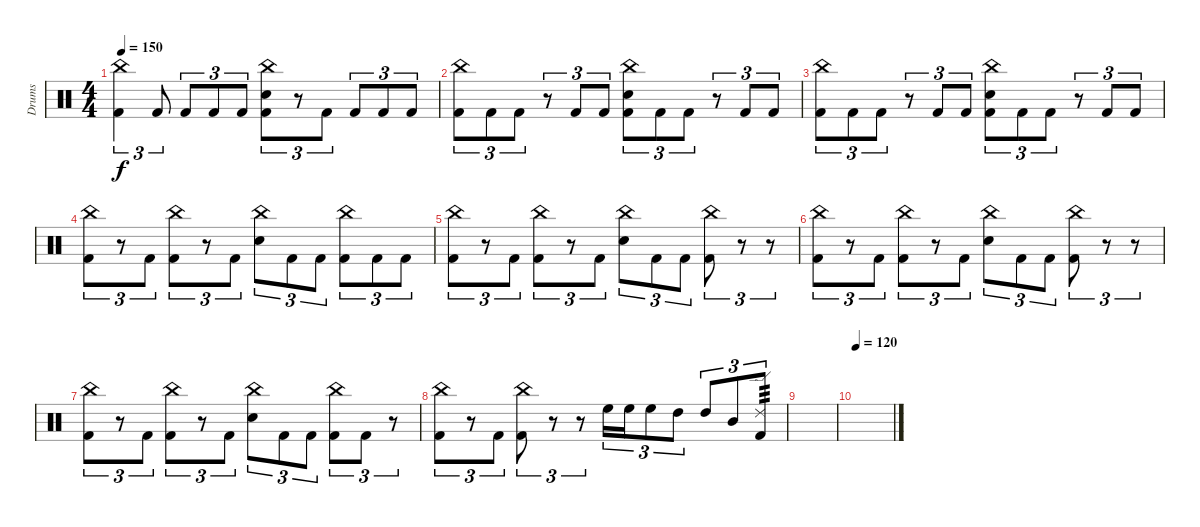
\track ("Drums" "Drums") {instrument percussion}
\staff {score}
\articulation defaults
\ts (4 4)
\tempo 150
\clef neutral
\ks c
("China (hit)" "Kick (hit) 2").4{tu (3 2) dy f} "Kick (hit) 2".8{tu (3 2)} "Kick (hit) 2".8{tu (3 2)} "Kick (hit) 2".8{tu (3 2)} "Kick (hit) 2".8{tu (3 2)} ("China (hit)" "Snare (hit) 2" "Kick (hit) 2").8{tu (3 2)} r.8{tu (3 2)} "Kick (hit) 2".8{tu (3 2)} "Kick (hit) 2".8{tu (3 2)} "Kick (hit) 2".8{tu (3 2)} "Kick (hit) 2".8{tu (3 2)} |
("China (hit)" "Kick (hit) 2").8{tu (3 2)} "Kick (hit) 2".8{tu (3 2)} "Kick (hit) 2".8{tu (3 2)} r.8{tu (3 2)} "Kick (hit) 2".8{tu (3 2)} "Kick (hit) 2".8{tu (3 2)} ("China (hit)" "Snare (hit) 2" "Kick (hit) 2").8{tu (3 2)} "Kick (hit) 2".8{tu (3 2)} "Kick (hit) 2".8{tu (3 2)} r.8{tu (3 2)} "Kick (hit) 2".8{tu (3 2)} "Kick (hit) 2".8{tu (3 2)} |
("China (hit)" "Kick (hit) 2").8{tu (3 2)} "Kick (hit) 2".8{tu (3 2)} "Kick (hit) 2".8{tu (3 2)} r.8{tu (3 2)} "Kick (hit) 2".8{tu (3 2)} "Kick (hit) 2".8{tu (3 2)} ("China (hit)" "Snare (hit) 2" "Kick (hit) 2").8{tu (3 2)} "Kick (hit) 2".8{tu (3 2)} "Kick (hit) 2".8{tu (3 2)} r.8{tu (3 2)} "Kick (hit) 2".8{tu (3 2)} "Kick (hit) 2".8{tu (3 2)} |
("China (hit)" "Kick (hit) 2").8{tu (3 2)} r.8{tu (3 2)} "Kick (hit) 2".8{tu (3 2)} ("China (hit)" "Kick (hit) 2").8{tu (3 2)} r.8{tu (3 2)} "Kick (hit) 2".8{tu (3 2)} ("China (hit)" "Snare (hit) 2").8{tu (3 2)} "Kick (hit) 2".8{tu (3 2)} "Kick (hit) 2".8{tu (3 2)} ("China (hit)" "Kick (hit) 2").8{tu (3 2)} "Kick (hit) 2".8{tu (3 2)} "Kick (hit) 2".8{tu (3 2)} |
("China (hit)" "Kick (hit) 2").8{tu (3 2)} r.8{tu (3 2)} "Kick (hit) 2".8{tu (3 2)} ("China (hit)" "Kick (hit) 2").8{tu (3 2)} r.8{tu (3 2)} "Kick (hit) 2".8{tu (3 2)} ("China (hit)" "Snare (hit) 2").8{tu (3 2)} "Kick (hit) 2".8{tu (3 2)} "Kick (hit) 2".8{tu (3 2)} ("China (hit)" "Kick (hit) 2").8{tu (3 2)} r.8{tu (3 2)} r.8{tu (3 2)} |
("China (hit)" "Kick (hit) 2").8{tu (3 2)} r.8{tu (3 2)} "Kick (hit) 2".8{tu (3 2)} ("China (hit)" "Kick (hit) 2").8{tu (3 2)} r.8{tu (3 2)} "Kick (hit) 2".8{tu (3 2)} ("China (hit)" "Snare (hit) 2").8{tu (3 2)} "Kick (hit) 2".8{tu (3 2)} "Kick (hit) 2".8{tu (3 2)} ("China (hit)" "Kick (hit) 2").8{tu (3 2)} r.8{tu (3 2)} r.8{tu (3 2)} |
("China (hit)" "Kick (hit) 2").8{tu (3 2)} r.8{tu (3 2)} "Kick (hit) 2".8{tu (3 2)} ("China (hit)" "Kick (hit) 2").8{tu (3 2)} r.8{tu (3 2)} "Kick (hit) 2".8{tu (3 2)} ("China (hit)" "Snare (hit) 2").8{tu (3 2)} "Kick (hit) 2".8{tu (3 2)} "Kick (hit) 2".8{tu (3 2)} ("China (hit)" "Kick (hit) 2").8{tu (3 2)} "Kick (hit) 2".8{tu (3 2)} r.8{tu (3 2)} |
("China (hit)" "Kick (hit) 2").8{tu (3 2)} r.8{tu (3 2)} "Kick (hit) 2".8{tu (3 2)} ("China (hit)" "Kick (hit) 2").8{tu (3 2)} r.8{tu (3 2)} r.8{tu (3 2)} "High Floor Tom (hit)".16{tu (3 2)} "High Floor Tom (hit)".16{tu (3 2)} "High Floor Tom (hit)".8{tu (3 2)} "High Tom (hit)".8{tu (3 2)} "High Tom (hit)".8{tu (3 2)} "Mid Tom (hit)".8{tu (3 2)} ("Ride (edge) 2" "Kick (hit) 2").8{tu (3 2) tp 3} |
|
\tempo 120
